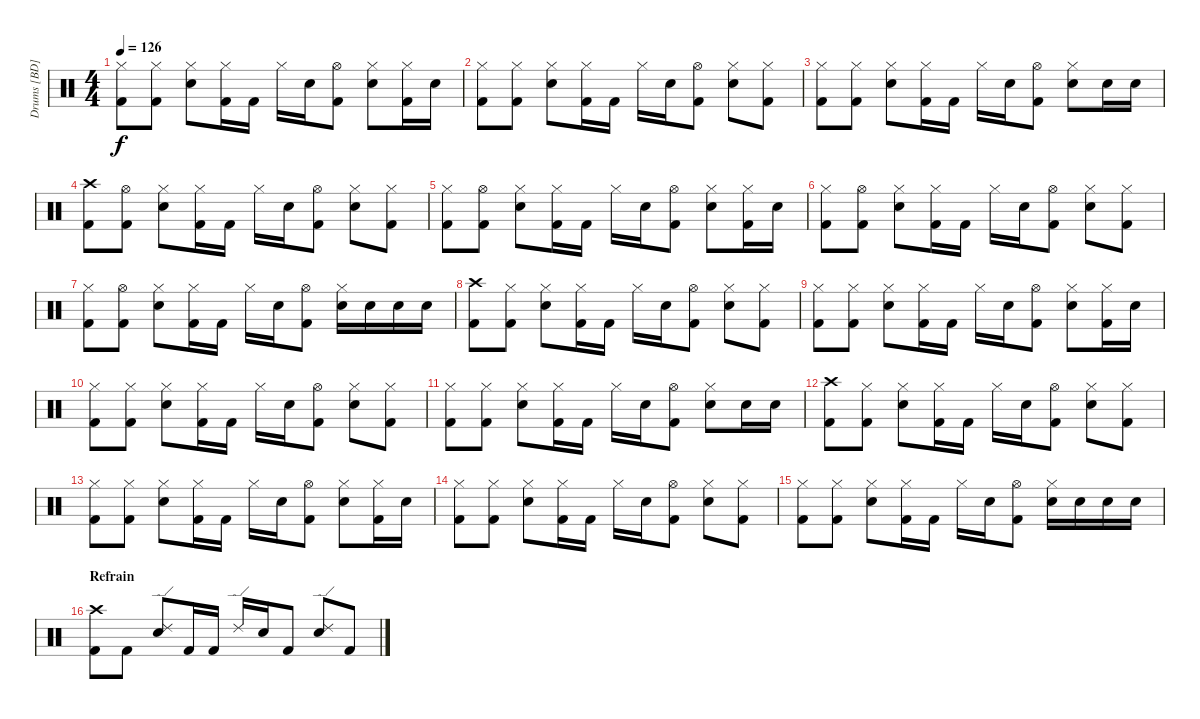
\track ("Drums [BD]" "Drums [BD]") {instrument percussion}
\staff {score}
\articulation defaults
\ts (4 4)
\tempo 126
\clef neutral
\ks c
("Kick (hit) 2" "Hi-Hat (closed)").8{dy f} ("Kick (hit) 2" "Hi-Hat (closed)").8 ("Electric Snare (hit)" "Hi-Hat (closed)").8 ("Kick (hit) 2" "Hi-Hat (closed)").16 "Kick (hit) 2".16 "Hi-Hat (closed)".16 "Electric Snare (hit)".16 ("Kick (hit) 2" "Hi-Hat (open)").8 ("Electric Snare (hit)" "Hi-Hat (closed)").8 ("Kick (hit) 2" "Hi-Hat (closed)").16 "Electric Snare (hit)".16 |
("Kick (hit) 2" "Hi-Hat (closed)").8 ("Kick (hit) 2" "Hi-Hat (closed)").8 ("Electric Snare (hit)" "Hi-Hat (closed)").8 ("Kick (hit) 2" "Hi-Hat (closed)").16 "Kick (hit) 2".16 "Hi-Hat (closed)".16 "Electric Snare (hit)".16 ("Kick (hit) 2" "Hi-Hat (open)").8 ("Electric Snare (hit)" "Hi-Hat (closed)").8 ("Kick (hit) 2" "Hi-Hat (closed)").8 |
("Kick (hit) 2" "Hi-Hat (closed)").8 ("Kick (hit) 2" "Hi-Hat (closed)").8 ("Electric Snare (hit)" "Hi-Hat (closed)").8 ("Kick (hit) 2" "Hi-Hat (closed)").16 "Kick (hit) 2".16 "Hi-Hat (closed)".16 "Electric Snare (hit)".16 ("Kick (hit) 2" "Hi-Hat (open)").8 ("Electric Snare (hit)" "Hi-Hat (closed)").8 "Electric Snare (hit)".16 "Electric Snare (hit)".16 |
("Kick (hit) 2" "Crash high (hit)").8 ("Kick (hit) 2" "Hi-Hat (open)").8 ("Electric Snare (hit)" "Hi-Hat (closed)").8 ("Kick (hit) 2" "Hi-Hat (closed)").16 "Kick (hit) 2".16 "Hi-Hat (closed)".16 "Electric Snare (hit)".16 ("Kick (hit) 2" "Hi-Hat (open)").8 ("Electric Snare (hit)" "Hi-Hat (closed)").8 ("Kick (hit) 2" "Hi-Hat (closed)").8 |
("Kick (hit) 2" "Hi-Hat (closed)").8 ("Kick (hit) 2" "Hi-Hat (open)").8 ("Electric Snare (hit)" "Hi-Hat (closed)").8 ("Kick (hit) 2" "Hi-Hat (closed)").16 "Kick (hit) 2".16 "Hi-Hat (closed)".16 "Electric Snare (hit)".16 ("Kick (hit) 2" "Hi-Hat (open)").8 ("Electric Snare (hit)" "Hi-Hat (closed)").8 ("Kick (hit) 2" "Hi-Hat (closed)").16 "Electric Snare (hit)".16 |
("Kick (hit) 2" "Hi-Hat (closed)").8 ("Kick (hit) 2" "Hi-Hat (open)").8 ("Electric Snare (hit)" "Hi-Hat (closed)").8 ("Kick (hit) 2" "Hi-Hat (closed)").16 "Kick (hit) 2".16 "Hi-Hat (closed)".16 "Electric Snare (hit)".16 ("Kick (hit) 2" "Hi-Hat (open)").8 ("Electric Snare (hit)" "Hi-Hat (closed)").8 ("Kick (hit) 2" "Hi-Hat (closed)").8 |
("Kick (hit) 2" "Hi-Hat (closed)").8 ("Kick (hit) 2" "Hi-Hat (open)").8 ("Electric Snare (hit)" "Hi-Hat (closed)").8 ("Kick (hit) 2" "Hi-Hat (closed)").16 "Kick (hit) 2".16 "Hi-Hat (closed)".16 "Electric Snare (hit)".16 ("Kick (hit) 2" "Hi-Hat (open)").8 ("Electric Snare (hit)" "Hi-Hat (closed)").16 "Electric Snare (hit)".16 "Electric Snare (hit)".16 "Electric Snare (hit)".16 |
("Kick (hit) 2" "Crash high (hit)").8 ("Kick (hit) 2" "Hi-Hat (closed)").8 ("Electric Snare (hit)" "Hi-Hat (closed)").8 ("Kick (hit) 2" "Hi-Hat (closed)").16 "Kick (hit) 2".16 "Hi-Hat (closed)".16 "Electric Snare (hit)".16 ("Kick (hit) 2" "Hi-Hat (open)").8 ("Electric Snare (hit)" "Hi-Hat (closed)").8 ("Kick (hit) 2" "Hi-Hat (closed)").8 |
("Kick (hit) 2" "Hi-Hat (closed)").8 ("Kick (hit) 2" "Hi-Hat (closed)").8 ("Electric Snare (hit)" "Hi-Hat (closed)").8 ("Kick (hit) 2" "Hi-Hat (closed)").16 "Kick (hit) 2".16 "Hi-Hat (closed)".16 "Electric Snare (hit)".16 ("Kick (hit) 2" "Hi-Hat (open)").8 ("Electric Snare (hit)" "Hi-Hat (closed)").8 ("Kick (hit) 2" "Hi-Hat (closed)").16 "Electric Snare (hit)".16 |
("Kick (hit) 2" "Hi-Hat (closed)").8 ("Kick (hit) 2" "Hi-Hat (closed)").8 ("Electric Snare (hit)" "Hi-Hat (closed)").8 ("Kick (hit) 2" "Hi-Hat (closed)").16 "Kick (hit) 2".16 "Hi-Hat (closed)".16 "Electric Snare (hit)".16 ("Kick (hit) 2" "Hi-Hat (open)").8 ("Electric Snare (hit)" "Hi-Hat (closed)").8 ("Kick (hit) 2" "Hi-Hat (closed)").8 |
("Kick (hit) 2" "Hi-Hat (closed)").8 ("Kick (hit) 2" "Hi-Hat (closed)").8 ("Electric Snare (hit)" "Hi-Hat (closed)").8 ("Kick (hit) 2" "Hi-Hat (closed)").16 "Kick (hit) 2".16 "Hi-Hat (closed)".16 "Electric Snare (hit)".16 ("Kick (hit) 2" "Hi-Hat (open)").8 ("Electric Snare (hit)" "Hi-Hat (closed)").8 "Electric Snare (hit)".16 "Electric Snare (hit)".16 |
("Kick (hit) 2" "Crash high (hit)").8 ("Kick (hit) 2" "Hi-Hat (closed)").8 ("Electric Snare (hit)" "Hi-Hat (closed)").8 ("Kick (hit) 2" "Hi-Hat (closed)").16 "Kick (hit) 2".16 "Hi-Hat (closed)".16 "Electric Snare (hit)".16 ("Kick (hit) 2" "Hi-Hat (open)").8 ("Electric Snare (hit)" "Hi-Hat (closed)").8 ("Kick (hit) 2" "Hi-Hat (closed)").8 |
("Kick (hit) 2" "Hi-Hat (closed)").8 ("Kick (hit) 2" "Hi-Hat (closed)").8 ("Electric Snare (hit)" "Hi-Hat (closed)").8 ("Kick (hit) 2" "Hi-Hat (closed)").16 "Kick (hit) 2".16 "Hi-Hat (closed)".16 "Electric Snare (hit)".16 ("Kick (hit) 2" "Hi-Hat (open)").8 ("Electric Snare (hit)" "Hi-Hat (closed)").8 ("Kick (hit) 2" "Hi-Hat (closed)").16 "Electric Snare (hit)".16 |
("Kick (hit) 2" "Hi-Hat (closed)").8 ("Kick (hit) 2" "Hi-Hat (closed)").8 ("Electric Snare (hit)" "Hi-Hat (closed)").8 ("Kick (hit) 2" "Hi-Hat (closed)").16 "Kick (hit) 2".16 "Hi-Hat (closed)".16 "Electric Snare (hit)".16 ("Kick (hit) 2" "Hi-Hat (open)").8 ("Electric Snare (hit)" "Hi-Hat (closed)").8 ("Kick (hit) 2" "Hi-Hat (closed)").8 |
("Kick (hit) 2" "Hi-Hat (closed)").8 ("Kick (hit) 2" "Hi-Hat (closed)").8 ("Electric Snare (hit)" "Hi-Hat (closed)").8 ("Kick (hit) 2" "Hi-Hat (closed)").16 "Kick (hit) 2".16 "Hi-Hat (closed)".16 "Electric Snare (hit)".16 ("Kick (hit) 2" "Hi-Hat (open)").8 ("Electric Snare (hit)" "Hi-Hat (closed)").16 "Electric Snare (hit)".16 "Electric Snare (hit)".16 "Electric Snare (hit)".16 |
\section ("" "Refrain")
("Kick (hit) 2" "Crash high (hit)").8 "Kick (hit) 2".8 ("Electric Snare (hit)" "Ride (edge) 2").8 "Kick (hit) 2".16 "Kick (hit) 2".16 "Ride (edge) 2".16 "Electric Snare (hit)".16 "Kick (hit) 2".8 ("Electric Snare (hit)" "Ride (edge) 2").8 "Kick (hit) 2".8
